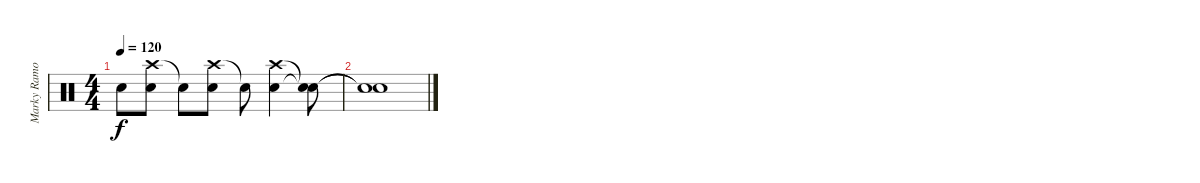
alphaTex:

\track ("Marky Ramone - Drum" "Marky Ramo") {instrument percussion}
\staff {score}
\articulation defaults
\ts (4 4)
\tempo 120
\clef neutral
\ks c "Snare (hit)"{t}.8{dy f}
("Crash high (hit)" "Snare (hit) 2").8 "Snare (hit)"{t}.8 ("Crash high (hit)" "Snare (hit) 2").8 "Snare (hit)"{t}.8 ("Crash high (hit)" "Snare (hit) 2").4 ("Snare (hit)"{t} "Snare (hit)"{t}).8 |
("Snare (hit)"{t} "Snare (hit)"{t}).1
